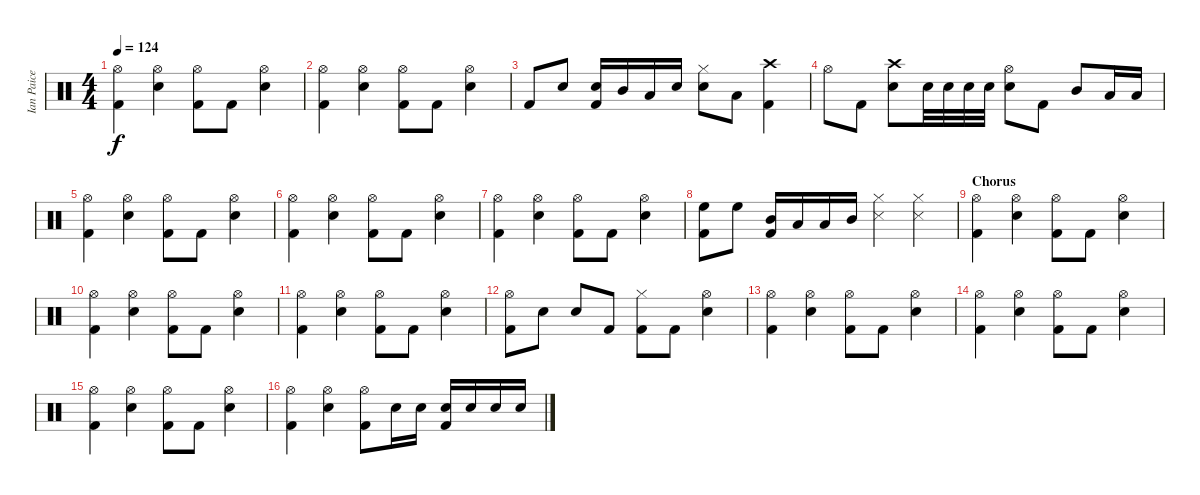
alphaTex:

\track ("Ian Paice (drum)" "Ian Paice ") {instrument percussion}
\staff {score}
\articulation defaults
\ts (4 4)
\tempo 124
\clef neutral
\ks c
("Hi-Hat (open)" "Kick (hit) 2").4{dy f} ("Snare (hit) 2" "Hi-Hat (open)").4 ("Hi-Hat (open)" "Kick (hit) 2").8 "Kick (hit) 2".8 ("Snare (hit) 2" "Hi-Hat (open)").4 |
("Hi-Hat (open)" "Kick (hit) 2").4 ("Snare (hit) 2" "Hi-Hat (open)").4 ("Hi-Hat (open)" "Kick (hit) 2").8 "Kick (hit) 2".8 ("Snare (hit) 2" "Hi-Hat (open)").4 |
"Kick (hit) 2".8 "Snare (hit) 2".8 ("Snare (hit) 2" "Kick (hit) 2").16 "Mid Tom (hit)".16 "Low Tom (hit)".16 "Snare (hit) 2".16 ("Snare (hit) 2" "Hi-Hat (closed)").8 "Low Floor Tom (hit)".8 ("Crash high (hit)" "Kick (hit) 2").4 |
"Hi-Hat (open)".8 "Kick (hit) 2".8 ("Crash high (hit)" "Snare (hit) 2").8 "Snare (hit) 2".32 "Snare (hit) 2".32 "Snare (hit) 2".32 "Snare (hit) 2".32 ("Snare (hit) 2" "Hi-Hat (open)").8 "Kick (hit) 2".8 "Mid Tom (hit)".8 "Low Tom (hit)".16 "Low Floor Tom (hit)".16 |
("Hi-Hat (open)" "Kick (hit) 2").4 ("Snare (hit) 2" "Hi-Hat (open)").4 ("Hi-Hat (open)" "Kick (hit) 2").8 "Kick (hit) 2".8 ("Snare (hit) 2" "Hi-Hat (open)").4 |
("Hi-Hat (open)" "Kick (hit) 2").4 ("Snare (hit) 2" "Hi-Hat (open)").4 ("Hi-Hat (open)" "Kick (hit) 2").8 "Kick (hit) 2".8 ("Snare (hit) 2" "Hi-Hat (open)").4 |
("Hi-Hat (open)" "Kick (hit) 2").4 ("Snare (hit) 2" "Hi-Hat (open)").4 ("Hi-Hat (open)" "Kick (hit) 2").8 "Kick (hit) 2".8 ("Snare (hit) 2" "Hi-Hat (open)").4 |
("High Floor Tom (hit)" "Kick (hit) 2").8 "High Floor Tom (hit)".8 ("Mid Tom (hit)" "Kick (hit) 2").16 "Low Tom (hit)".16 "Low Floor Tom (hit)".16 "Mid Tom (hit)".16 ("Snare (side stick) 3" "Hi-Hat (closed)").4 ("Snare (side stick) 3" "Hi-Hat (closed)").4 |
\section ("" "Chorus")
("Hi-Hat (open)" "Kick (hit) 2").4 ("Snare (hit) 2" "Hi-Hat (open)").4 ("Hi-Hat (open)" "Kick (hit) 2").8 "Kick (hit) 2".8 ("Snare (hit) 2" "Hi-Hat (open)").4 |
("Hi-Hat (open)" "Kick (hit) 2").4 ("Snare (hit) 2" "Hi-Hat (open)").4 ("Hi-Hat (open)" "Kick (hit) 2").8 "Kick (hit) 2".8 ("Snare (hit) 2" "Hi-Hat (open)").4 |
("Hi-Hat (open)" "Kick (hit) 2").4 ("Snare (hit) 2" "Hi-Hat (open)").4 ("Hi-Hat (open)" "Kick (hit) 2").8 "Kick (hit) 2".8 ("Snare (hit) 2" "Hi-Hat (open)").4 |
("Hi-Hat (open)" "Kick (hit) 2").8 "Snare (hit) 2".8 "Snare (hit) 2".8 "Kick (hit) 2".8 ("Hi-Hat (closed)" "Kick (hit) 2").8 "Kick (hit) 2".8 ("Snare (hit) 2" "Hi-Hat (open)").4 |
("Hi-Hat (open)" "Kick (hit) 2").4 ("Snare (hit) 2" "Hi-Hat (open)").4 ("Hi-Hat (open)" "Kick (hit) 2").8 "Kick (hit) 2".8 ("Snare (hit) 2" "Hi-Hat (open)").4 |
("Hi-Hat (open)" "Kick (hit) 2").4 ("Snare (hit) 2" "Hi-Hat (open)").4 ("Hi-Hat (open)" "Kick (hit) 2").8 "Kick (hit) 2".8 ("Snare (hit) 2" "Hi-Hat (open)").4 |
("Hi-Hat (open)" "Kick (hit) 2").4 ("Snare (hit) 2" "Hi-Hat (open)").4 ("Hi-Hat (open)" "Kick (hit) 2").8 "Kick (hit) 2".8 ("Snare (hit) 2" "Hi-Hat (open)").4 |
("Hi-Hat (open)" "Kick (hit) 2").4 ("Snare (hit) 2" "Hi-Hat (open)").4 ("Hi-Hat (open)" "Kick (hit) 2").8 "Snare (hit) 2".16 "Snare (hit) 2".16 ("Snare (hit) 2" "Kick (hit) 2").16 "Snare (hit) 2".16 "Snare (hit) 2".16 "Snare (hit) 2".16
